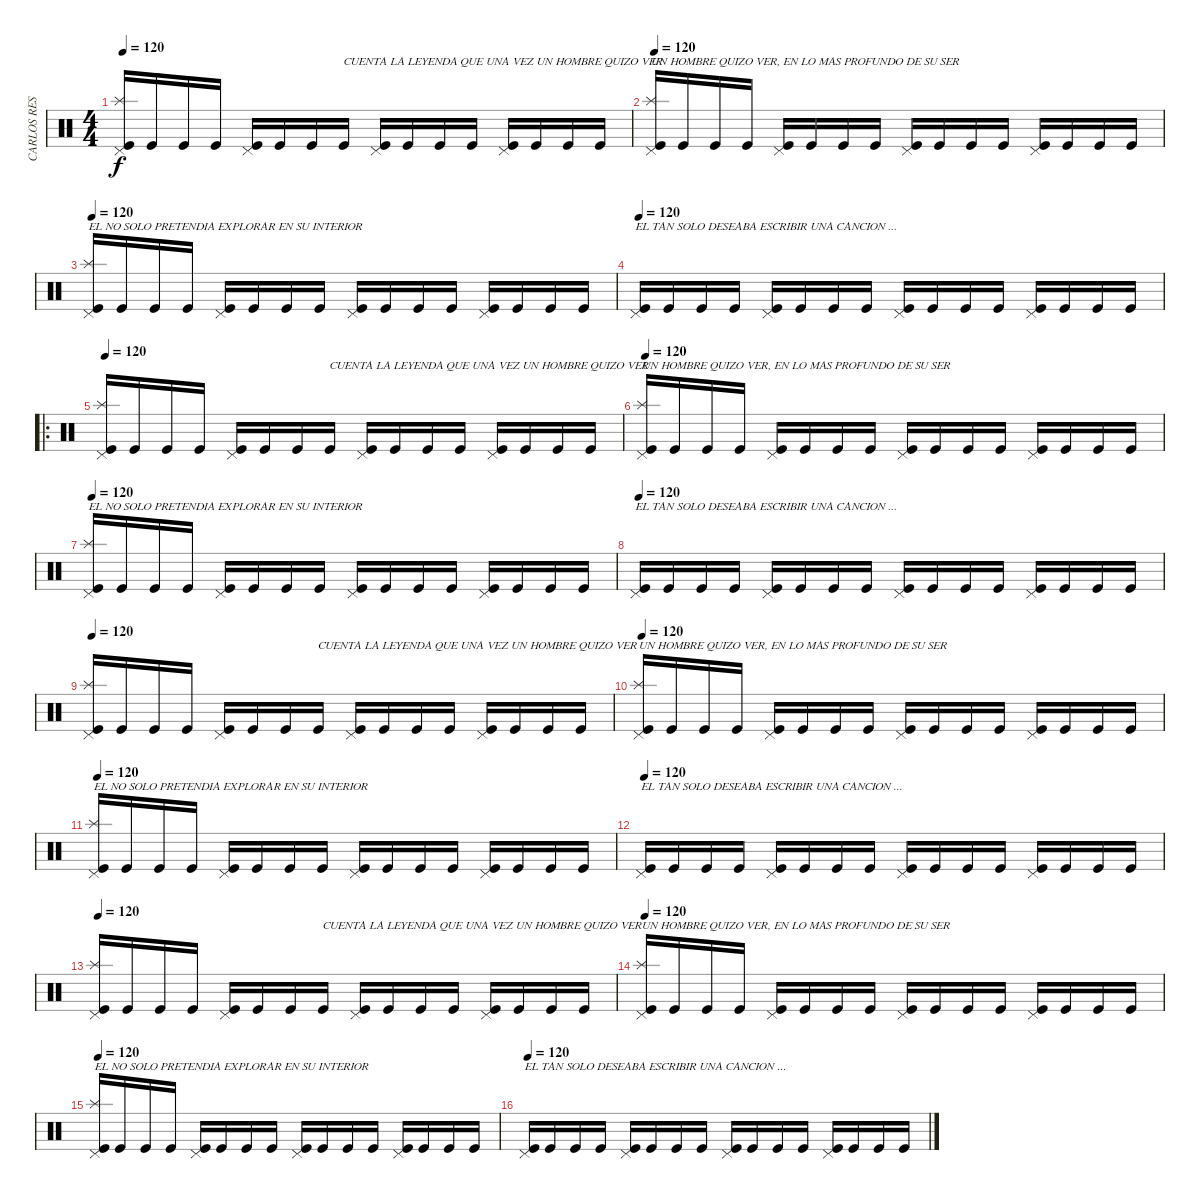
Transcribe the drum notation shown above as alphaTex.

\track ("CARLOS RESTREPO DARK  BATERIA" "CARLOS RES") {instrument percussion}
\staff {score}
\articulation defaults
\ts (4 4)
\tempo 120
\clef neutral
\ks c
("Kick (hit)" "Splash (hit)" "Pedal Hi-Hat (hit)").16{dy f} "Kick (hit)".16 "Kick (hit)".16 "Kick (hit)".16 ("Kick (hit)" "Pedal Hi-Hat (hit)").16 "Kick (hit)".16 "Kick (hit)".16 "Kick (hit)".16{txt "CUENTA LA LEYENDA QUE UNA VEZ UN HOMBRE QUIZO VER"} ("Kick (hit)" "Pedal Hi-Hat (hit)").16 "Kick (hit)".16 "Kick (hit)".16 "Kick (hit)".16 ("Kick (hit)" "Pedal Hi-Hat (hit)").16 "Kick (hit)".16 "Kick (hit)".16 "Kick (hit)".16 |
\tempo 120
("Kick (hit)" "Splash (hit)" "Pedal Hi-Hat (hit)").16{txt "UN HOMBRE QUIZO VER, EN LO MAS PROFUNDO DE SU SER"} "Kick (hit)".16 "Kick (hit)".16 "Kick (hit)".16 ("Kick (hit)" "Pedal Hi-Hat (hit)").16 "Kick (hit)".16 "Kick (hit)".16 "Kick (hit)".16 ("Kick (hit)" "Pedal Hi-Hat (hit)").16 "Kick (hit)".16 "Kick (hit)".16 "Kick (hit)".16 ("Kick (hit)" "Pedal Hi-Hat (hit)").16 "Kick (hit)".16 "Kick (hit)".16 "Kick (hit)".16 |
\tempo 120
("Kick (hit)" "Splash (hit)" "Pedal Hi-Hat (hit)").16{txt "EL NO SOLO PRETENDIA EXPLORAR EN SU INTERIOR"} "Kick (hit)".16 "Kick (hit)".16 "Kick (hit)".16 ("Kick (hit)" "Pedal Hi-Hat (hit)").16 "Kick (hit)".16 "Kick (hit)".16 "Kick (hit)".16 ("Kick (hit)" "Pedal Hi-Hat (hit)").16 "Kick (hit)".16 "Kick (hit)".16 "Kick (hit)".16 ("Kick (hit)" "Pedal Hi-Hat (hit)").16 "Kick (hit)".16 "Kick (hit)".16 "Kick (hit)".16 |
\tempo 120
("Kick (hit)" "Pedal Hi-Hat (hit)").16{txt "EL TAN SOLO DESEABA ESCRIBIR UNA CANCION ..."} "Kick (hit)".16 "Kick (hit)".16 "Kick (hit)".16 ("Kick (hit)" "Pedal Hi-Hat (hit)").16 "Kick (hit)".16 "Kick (hit)".16 "Kick (hit)".16 ("Kick (hit)" "Pedal Hi-Hat (hit)").16 "Kick (hit)".16 "Kick (hit)".16 "Kick (hit)".16 ("Kick (hit)" "Pedal Hi-Hat (hit)").16 "Kick (hit)".16 "Kick (hit)".16 "Kick (hit)".16 |
\ro
\tempo 120
("Kick (hit)" "Splash (hit)" "Pedal Hi-Hat (hit)").16 "Kick (hit)".16 "Kick (hit)".16 "Kick (hit)".16 ("Kick (hit)" "Pedal Hi-Hat (hit)").16 "Kick (hit)".16 "Kick (hit)".16 "Kick (hit)".16{txt "CUENTA LA LEYENDA QUE UNA VEZ UN HOMBRE QUIZO VER"} ("Kick (hit)" "Pedal Hi-Hat (hit)").16 "Kick (hit)".16 "Kick (hit)".16 "Kick (hit)".16 ("Kick (hit)" "Pedal Hi-Hat (hit)").16 "Kick (hit)".16 "Kick (hit)".16 "Kick (hit)".16 |
\tempo 120
("Kick (hit)" "Splash (hit)" "Pedal Hi-Hat (hit)").16{txt "UN HOMBRE QUIZO VER, EN LO MAS PROFUNDO DE SU SER"} "Kick (hit)".16 "Kick (hit)".16 "Kick (hit)".16 ("Kick (hit)" "Pedal Hi-Hat (hit)").16 "Kick (hit)".16 "Kick (hit)".16 "Kick (hit)".16 ("Kick (hit)" "Pedal Hi-Hat (hit)").16 "Kick (hit)".16 "Kick (hit)".16 "Kick (hit)".16 ("Kick (hit)" "Pedal Hi-Hat (hit)").16 "Kick (hit)".16 "Kick (hit)".16 "Kick (hit)".16 |
\tempo 120
("Kick (hit)" "Splash (hit)" "Pedal Hi-Hat (hit)").16{txt "EL NO SOLO PRETENDIA EXPLORAR EN SU INTERIOR"} "Kick (hit)".16 "Kick (hit)".16 "Kick (hit)".16 ("Kick (hit)" "Pedal Hi-Hat (hit)").16 "Kick (hit)".16 "Kick (hit)".16 "Kick (hit)".16 ("Kick (hit)" "Pedal Hi-Hat (hit)").16 "Kick (hit)".16 "Kick (hit)".16 "Kick (hit)".16 ("Kick (hit)" "Pedal Hi-Hat (hit)").16 "Kick (hit)".16 "Kick (hit)".16 "Kick (hit)".16 |
\tempo 120
("Kick (hit)" "Pedal Hi-Hat (hit)").16{txt "EL TAN SOLO DESEABA ESCRIBIR UNA CANCION ..."} "Kick (hit)".16 "Kick (hit)".16 "Kick (hit)".16 ("Kick (hit)" "Pedal Hi-Hat (hit)").16 "Kick (hit)".16 "Kick (hit)".16 "Kick (hit)".16 ("Kick (hit)" "Pedal Hi-Hat (hit)").16 "Kick (hit)".16 "Kick (hit)".16 "Kick (hit)".16 ("Kick (hit)" "Pedal Hi-Hat (hit)").16 "Kick (hit)".16 "Kick (hit)".16 "Kick (hit)".16 |
\tempo 120
("Kick (hit)" "Splash (hit)" "Pedal Hi-Hat (hit)").16 "Kick (hit)".16 "Kick (hit)".16 "Kick (hit)".16 ("Kick (hit)" "Pedal Hi-Hat (hit)").16 "Kick (hit)".16 "Kick (hit)".16 "Kick (hit)".16{txt "CUENTA LA LEYENDA QUE UNA VEZ UN HOMBRE QUIZO VER"} ("Kick (hit)" "Pedal Hi-Hat (hit)").16 "Kick (hit)".16 "Kick (hit)".16 "Kick (hit)".16 ("Kick (hit)" "Pedal Hi-Hat (hit)").16 "Kick (hit)".16 "Kick (hit)".16 "Kick (hit)".16 |
\tempo 120
("Kick (hit)" "Splash (hit)" "Pedal Hi-Hat (hit)").16{txt "UN HOMBRE QUIZO VER, EN LO MAS PROFUNDO DE SU SER"} "Kick (hit)".16 "Kick (hit)".16 "Kick (hit)".16 ("Kick (hit)" "Pedal Hi-Hat (hit)").16 "Kick (hit)".16 "Kick (hit)".16 "Kick (hit)".16 ("Kick (hit)" "Pedal Hi-Hat (hit)").16 "Kick (hit)".16 "Kick (hit)".16 "Kick (hit)".16 ("Kick (hit)" "Pedal Hi-Hat (hit)").16 "Kick (hit)".16 "Kick (hit)".16 "Kick (hit)".16 |
\tempo 120
("Kick (hit)" "Splash (hit)" "Pedal Hi-Hat (hit)").16{txt "EL NO SOLO PRETENDIA EXPLORAR EN SU INTERIOR"} "Kick (hit)".16 "Kick (hit)".16 "Kick (hit)".16 ("Kick (hit)" "Pedal Hi-Hat (hit)").16 "Kick (hit)".16 "Kick (hit)".16 "Kick (hit)".16 ("Kick (hit)" "Pedal Hi-Hat (hit)").16 "Kick (hit)".16 "Kick (hit)".16 "Kick (hit)".16 ("Kick (hit)" "Pedal Hi-Hat (hit)").16 "Kick (hit)".16 "Kick (hit)".16 "Kick (hit)".16 |
\tempo 120
("Kick (hit)" "Pedal Hi-Hat (hit)").16{txt "EL TAN SOLO DESEABA ESCRIBIR UNA CANCION ..."} "Kick (hit)".16 "Kick (hit)".16 "Kick (hit)".16 ("Kick (hit)" "Pedal Hi-Hat (hit)").16 "Kick (hit)".16 "Kick (hit)".16 "Kick (hit)".16 ("Kick (hit)" "Pedal Hi-Hat (hit)").16 "Kick (hit)".16 "Kick (hit)".16 "Kick (hit)".16 ("Kick (hit)" "Pedal Hi-Hat (hit)").16 "Kick (hit)".16 "Kick (hit)".16 "Kick (hit)".16 |
\tempo 120
("Kick (hit)" "Splash (hit)" "Pedal Hi-Hat (hit)").16 "Kick (hit)".16 "Kick (hit)".16 "Kick (hit)".16 ("Kick (hit)" "Pedal Hi-Hat (hit)").16 "Kick (hit)".16 "Kick (hit)".16 "Kick (hit)".16{txt "CUENTA LA LEYENDA QUE UNA VEZ UN HOMBRE QUIZO VER"} ("Kick (hit)" "Pedal Hi-Hat (hit)").16 "Kick (hit)".16 "Kick (hit)".16 "Kick (hit)".16 ("Kick (hit)" "Pedal Hi-Hat (hit)").16 "Kick (hit)".16 "Kick (hit)".16 "Kick (hit)".16 |
\tempo 120
("Kick (hit)" "Splash (hit)" "Pedal Hi-Hat (hit)").16{txt "UN HOMBRE QUIZO VER, EN LO MAS PROFUNDO DE SU SER"} "Kick (hit)".16 "Kick (hit)".16 "Kick (hit)".16 ("Kick (hit)" "Pedal Hi-Hat (hit)").16 "Kick (hit)".16 "Kick (hit)".16 "Kick (hit)".16 ("Kick (hit)" "Pedal Hi-Hat (hit)").16 "Kick (hit)".16 "Kick (hit)".16 "Kick (hit)".16 ("Kick (hit)" "Pedal Hi-Hat (hit)").16 "Kick (hit)".16 "Kick (hit)".16 "Kick (hit)".16 |
\tempo 120
("Kick (hit)" "Splash (hit)" "Pedal Hi-Hat (hit)").16{txt "EL NO SOLO PRETENDIA EXPLORAR EN SU INTERIOR"} "Kick (hit)".16 "Kick (hit)".16 "Kick (hit)".16 ("Kick (hit)" "Pedal Hi-Hat (hit)").16 "Kick (hit)".16 "Kick (hit)".16 "Kick (hit)".16 ("Kick (hit)" "Pedal Hi-Hat (hit)").16 "Kick (hit)".16 "Kick (hit)".16 "Kick (hit)".16 ("Kick (hit)" "Pedal Hi-Hat (hit)").16 "Kick (hit)".16 "Kick (hit)".16 "Kick (hit)".16 |
\tempo 120
("Kick (hit)" "Pedal Hi-Hat (hit)").16{txt "EL TAN SOLO DESEABA ESCRIBIR UNA CANCION ..."} "Kick (hit)".16 "Kick (hit)".16 "Kick (hit)".16 ("Kick (hit)" "Pedal Hi-Hat (hit)").16 "Kick (hit)".16 "Kick (hit)".16 "Kick (hit)".16 ("Kick (hit)" "Pedal Hi-Hat (hit)").16 "Kick (hit)".16 "Kick (hit)".16 "Kick (hit)".16 ("Kick (hit)" "Pedal Hi-Hat (hit)").16 "Kick (hit)".16 "Kick (hit)".16 "Kick (hit)".16
